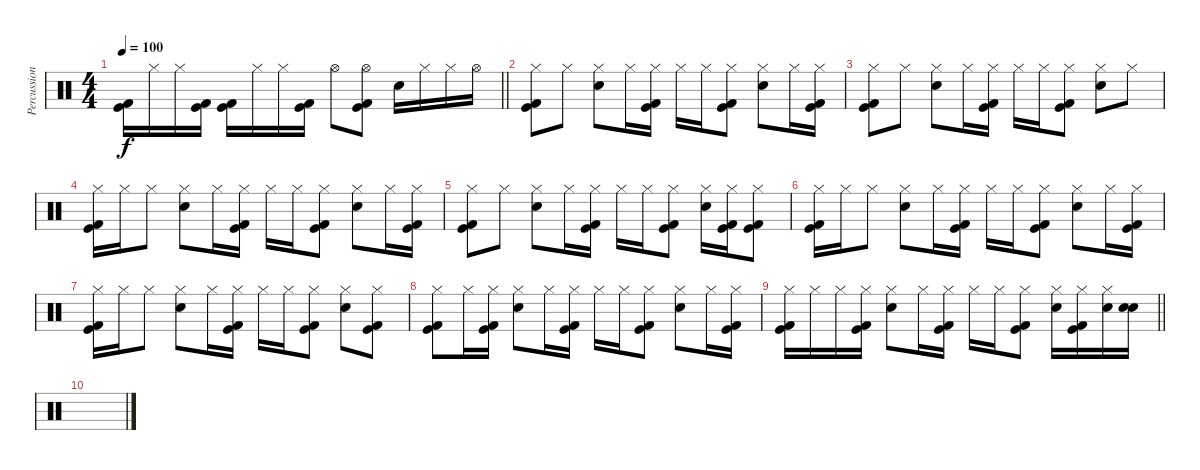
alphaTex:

\track ("Percussions" "Percussion") {instrument percussion}
\staff {score}
\articulation defaults
\ts (4 4)
\tempo 100
\clef neutral
\barLineRight lightlight
\ks c
("Kick (hit) 2" "Kick (hit)").16{dy f} "Hi-Hat (closed)".16 "Hi-Hat (closed)".16 ("Kick (hit) 2" "Kick (hit)").16 ("Kick (hit) 2" "Kick (hit)").16 "Hi-Hat (closed)".16 "Hi-Hat (closed)".16 ("Kick (hit) 2" "Kick (hit)").16 "Hi-Hat (open)".8 ("Hi-Hat (open)" "Kick (hit) 2" "Kick (hit)").8 "Electric Snare (hit)".16 "Hi-Hat (closed)".16 "Hi-Hat (closed)".16 "Hi-Hat (open)".16 |
\section ("" "")
("Hi-Hat (closed)" "Kick (hit) 2" "Kick (hit)").8 "Hi-Hat (closed)".8 ("Hi-Hat (closed)" "Electric Snare (hit)").8 "Hi-Hat (closed)".16 ("Hi-Hat (closed)" "Kick (hit) 2" "Kick (hit)").16 "Hi-Hat (closed)".16 "Hi-Hat (closed)".16 ("Hi-Hat (closed)" "Kick (hit) 2" "Kick (hit)").8 ("Hi-Hat (closed)" "Electric Snare (hit)").8 "Hi-Hat (closed)".16 ("Hi-Hat (closed)" "Kick (hit) 2" "Kick (hit)").16 |
("Hi-Hat (closed)" "Kick (hit) 2" "Kick (hit)").8 "Hi-Hat (closed)".8 ("Hi-Hat (closed)" "Electric Snare (hit)").8 "Hi-Hat (closed)".16 ("Hi-Hat (closed)" "Kick (hit) 2" "Kick (hit)").16 "Hi-Hat (closed)".16 "Hi-Hat (closed)".16 ("Hi-Hat (closed)" "Kick (hit) 2" "Kick (hit)").8 ("Hi-Hat (closed)" "Electric Snare (hit)").8 "Hi-Hat (closed)".8 |
("Hi-Hat (closed)" "Kick (hit) 2" "Kick (hit)").16 "Hi-Hat (closed)".16 "Hi-Hat (closed)".8 ("Hi-Hat (closed)" "Electric Snare (hit)").8 "Hi-Hat (closed)".16 ("Hi-Hat (closed)" "Kick (hit) 2" "Kick (hit)").16 "Hi-Hat (closed)".16 "Hi-Hat (closed)".16 ("Hi-Hat (closed)" "Kick (hit) 2" "Kick (hit)").8 ("Hi-Hat (closed)" "Electric Snare (hit)").8 "Hi-Hat (closed)".16 ("Hi-Hat (closed)" "Kick (hit) 2" "Kick (hit)").16 |
("Hi-Hat (closed)" "Kick (hit) 2" "Kick (hit)").8 "Hi-Hat (closed)".8 ("Hi-Hat (closed)" "Electric Snare (hit)").8 "Hi-Hat (closed)".16 ("Hi-Hat (closed)" "Kick (hit) 2" "Kick (hit)").16 "Hi-Hat (closed)".16 "Hi-Hat (closed)".16 ("Hi-Hat (closed)" "Kick (hit) 2" "Kick (hit)").8 ("Hi-Hat (closed)" "Electric Snare (hit)").16 ("Hi-Hat (closed)" "Kick (hit) 2" "Kick (hit)").16 ("Hi-Hat (closed)" "Kick (hit) 2" "Kick (hit)").8 |
("Hi-Hat (closed)" "Kick (hit) 2" "Kick (hit)").16 "Hi-Hat (closed)".16 "Hi-Hat (closed)".8 ("Hi-Hat (closed)" "Electric Snare (hit)").8 "Hi-Hat (closed)".16 ("Hi-Hat (closed)" "Kick (hit) 2" "Kick (hit)").16 "Hi-Hat (closed)".16 "Hi-Hat (closed)".16 ("Hi-Hat (closed)" "Kick (hit) 2" "Kick (hit)").8 ("Hi-Hat (closed)" "Electric Snare (hit)").8 "Hi-Hat (closed)".16 ("Hi-Hat (closed)" "Kick (hit) 2" "Kick (hit)").16 |
("Hi-Hat (closed)" "Kick (hit) 2" "Kick (hit)").16 "Hi-Hat (closed)".16 "Hi-Hat (closed)".8 ("Hi-Hat (closed)" "Electric Snare (hit)").8 "Hi-Hat (closed)".16 ("Hi-Hat (closed)" "Kick (hit) 2" "Kick (hit)").16 "Hi-Hat (closed)".16 "Hi-Hat (closed)".16 ("Hi-Hat (closed)" "Kick (hit) 2" "Kick (hit)").8 ("Hi-Hat (closed)" "Electric Snare (hit)").8 ("Hi-Hat (closed)" "Kick (hit) 2" "Kick (hit)").8 |
("Hi-Hat (closed)" "Kick (hit) 2" "Kick (hit)").8 "Hi-Hat (closed)".16 ("Hi-Hat (closed)" "Kick (hit) 2" "Kick (hit)").16 ("Hi-Hat (closed)" "Electric Snare (hit)").8 "Hi-Hat (closed)".16 ("Hi-Hat (closed)" "Kick (hit) 2" "Kick (hit)").16 "Hi-Hat (closed)".16 "Hi-Hat (closed)".16 ("Hi-Hat (closed)" "Kick (hit) 2" "Kick (hit)").8 ("Hi-Hat (closed)" "Electric Snare (hit)").8 "Hi-Hat (closed)".16 ("Hi-Hat (closed)" "Kick (hit) 2" "Kick (hit)").16 |
\barLineRight lightlight
("Hi-Hat (closed)" "Kick (hit) 2" "Kick (hit)").16 "Hi-Hat (closed)".16 "Hi-Hat (closed)".16 ("Hi-Hat (closed)" "Kick (hit) 2" "Kick (hit)").16 ("Hi-Hat (closed)" "Electric Snare (hit)").8 "Hi-Hat (closed)".16 ("Hi-Hat (closed)" "Kick (hit) 2" "Kick (hit)").16 "Hi-Hat (closed)".16 "Hi-Hat (closed)".16 ("Hi-Hat (closed)" "Kick (hit) 2" "Kick (hit)").8 ("Hi-Hat (closed)" "Electric Snare (hit)").16 ("Hi-Hat (closed)" "Kick (hit) 2" "Kick (hit)").16 ("Hi-Hat (closed)" "Electric Snare (hit)").16 ("Snare (hit)" "Electric Snare (hit)").16 |
\section ("" "")
